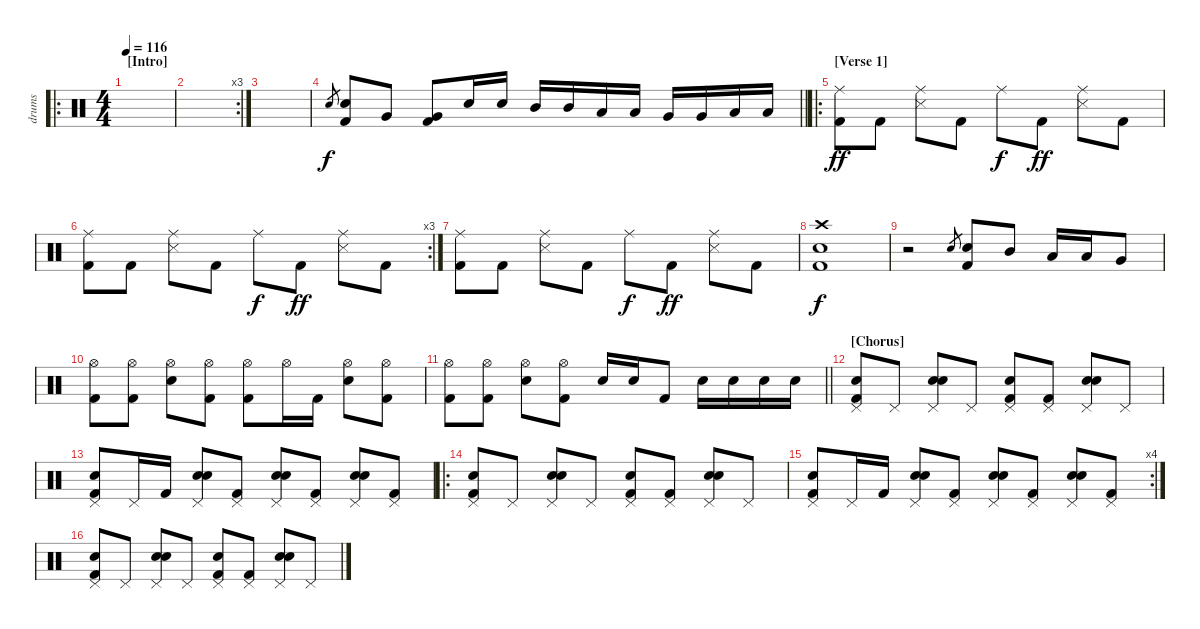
\track ("drums" "drums") {instrument percussion}
\staff {score}
\articulation defaults
\ro
\ts (4 4)
\section ("" "[Intro]")
\tempo 116
\clef neutral
\ks c
|
\rc 3
|
|
\barLineRight lightlight "Snare (hit) 2".8{gr}
("Snare (hit) 2" "Kick (hit) 2").8 "Very Low Tom (hit)".8 ("Very Low Tom (hit)" "Kick (hit) 2").8 "Snare (hit) 2".16 "Snare (hit) 2".16 "Mid Tom (hit)".16 "Mid Tom (hit)".16 "Low Tom (hit)".16 "Low Tom (hit)".16 "Very Low Tom (hit)".16 "Very Low Tom (hit)".16 "Low Floor Tom (hit)".16 "Low Floor Tom (hit)".16 |
\ro
\section ("" "[Verse 1]")
("Ride (middle)" "Kick (hit) 2").8{dy ff} "Kick (hit) 2".8 ("Ride (middle)" "Snare (side stick) 3").8 "Kick (hit) 2".8 "Ride (middle)".8{dy f} "Kick (hit) 2".8{dy ff} ("Ride (middle)" "Snare (side stick) 3").8 "Kick (hit) 2".8 |
\rc 3
("Ride (middle)" "Kick (hit) 2").8 "Kick (hit) 2".8 ("Ride (middle)" "Snare (side stick) 3").8 "Kick (hit) 2".8 "Ride (middle)".8{dy f} "Kick (hit) 2".8{dy ff} ("Ride (middle)" "Snare (side stick) 3").8 "Kick (hit) 2".8 |
("Ride (middle)" "Kick (hit) 2").8 "Kick (hit) 2".8 ("Ride (middle)" "Snare (side stick) 3").8 "Kick (hit) 2".8 "Ride (middle)".8{dy f} "Kick (hit) 2".8{dy ff} ("Ride (middle)" "Snare (side stick) 3").8 "Kick (hit) 2".8 |
("Crash high (hit)" "Electric Snare (hit)" "Kick (hit) 2").1{dy f} |
r.2 "Snare (hit) 2".8{gr} ("Snare (hit) 2" "Kick (hit) 2").8 "Mid Tom (hit)".8 "Low Tom (hit)".16 "Low Tom (hit)".16 "Very Low Tom (hit)".8 |
("Hi-Hat (open)" "Kick (hit) 2").8 ("Hi-Hat (open)" "Kick (hit) 2").8 ("Hi-Hat (open)" "Snare (hit) 2").8 ("Hi-Hat (open)" "Kick (hit) 2").8 ("Hi-Hat (open)" "Kick (hit) 2").8 "Hi-Hat (open)".16 "Kick (hit) 2".16 ("Hi-Hat (open)" "Snare (hit) 2").8 ("Hi-Hat (open)" "Kick (hit) 2").8 |
\barLineRight lightlight
("Hi-Hat (open)" "Kick (hit) 2").8 ("Hi-Hat (open)" "Kick (hit) 2").8 ("Hi-Hat (open)" "Snare (hit) 2").8 ("Hi-Hat (open)" "Kick (hit) 2").8 "Snare (hit) 2".16 "Snare (hit) 2".16 "Kick (hit) 2".8 "Snare (hit) 2".16 "Snare (hit) 2".16 "Snare (hit) 2".16 "Snare (hit) 2".16 |
\section ("" "[Chorus]")
("Hand Clap (hit)" "Pedal Hi-Hat (hit)" "Kick (hit) 2").8 "Pedal Hi-Hat (hit)".8 ("Hand Clap (hit)" "Pedal Hi-Hat (hit)" "Snare (hit) 2").8 "Pedal Hi-Hat (hit)".8 ("Hand Clap (hit)" "Pedal Hi-Hat (hit)" "Kick (hit) 2").8 ("Pedal Hi-Hat (hit)" "Kick (hit) 2").8 ("Hand Clap (hit)" "Pedal Hi-Hat (hit)" "Snare (hit) 2").8 "Pedal Hi-Hat (hit)".8 |
("Hand Clap (hit)" "Pedal Hi-Hat (hit)" "Kick (hit) 2").8 "Pedal Hi-Hat (hit)".16 "Kick (hit) 2".16 ("Hand Clap (hit)" "Pedal Hi-Hat (hit)" "Snare (hit) 2").8 ("Pedal Hi-Hat (hit)" "Kick (hit) 2").8 ("Hand Clap (hit)" "Pedal Hi-Hat (hit)" "Snare (hit) 2").8 ("Pedal Hi-Hat (hit)" "Kick (hit) 2").8 ("Hand Clap (hit)" "Pedal Hi-Hat (hit)" "Snare (hit) 2").8 ("Pedal Hi-Hat (hit)" "Kick (hit) 2").8 |
\ro
("Hand Clap (hit)" "Pedal Hi-Hat (hit)" "Kick (hit) 2").8 "Pedal Hi-Hat (hit)".8 ("Hand Clap (hit)" "Pedal Hi-Hat (hit)" "Snare (hit) 2").8 "Pedal Hi-Hat (hit)".8 ("Hand Clap (hit)" "Pedal Hi-Hat (hit)" "Kick (hit) 2").8 ("Pedal Hi-Hat (hit)" "Kick (hit) 2").8 ("Hand Clap (hit)" "Pedal Hi-Hat (hit)" "Snare (hit) 2").8 "Pedal Hi-Hat (hit)".8 |
\rc 4
("Hand Clap (hit)" "Pedal Hi-Hat (hit)" "Kick (hit) 2").8 "Pedal Hi-Hat (hit)".16 "Kick (hit) 2".16 ("Hand Clap (hit)" "Pedal Hi-Hat (hit)" "Snare (hit) 2").8 ("Pedal Hi-Hat (hit)" "Kick (hit) 2").8 ("Hand Clap (hit)" "Pedal Hi-Hat (hit)" "Snare (hit) 2").8 ("Pedal Hi-Hat (hit)" "Kick (hit) 2").8 ("Hand Clap (hit)" "Pedal Hi-Hat (hit)" "Snare (hit) 2").8 ("Pedal Hi-Hat (hit)" "Kick (hit) 2").8 |
("Hand Clap (hit)" "Pedal Hi-Hat (hit)" "Kick (hit) 2").8 "Pedal Hi-Hat (hit)".8 ("Hand Clap (hit)" "Pedal Hi-Hat (hit)" "Snare (hit) 2").8 "Pedal Hi-Hat (hit)".8 ("Hand Clap (hit)" "Pedal Hi-Hat (hit)" "Kick (hit) 2").8 ("Pedal Hi-Hat (hit)" "Kick (hit) 2").8 ("Hand Clap (hit)" "Pedal Hi-Hat (hit)" "Snare (hit) 2").8 "Pedal Hi-Hat (hit)".8
